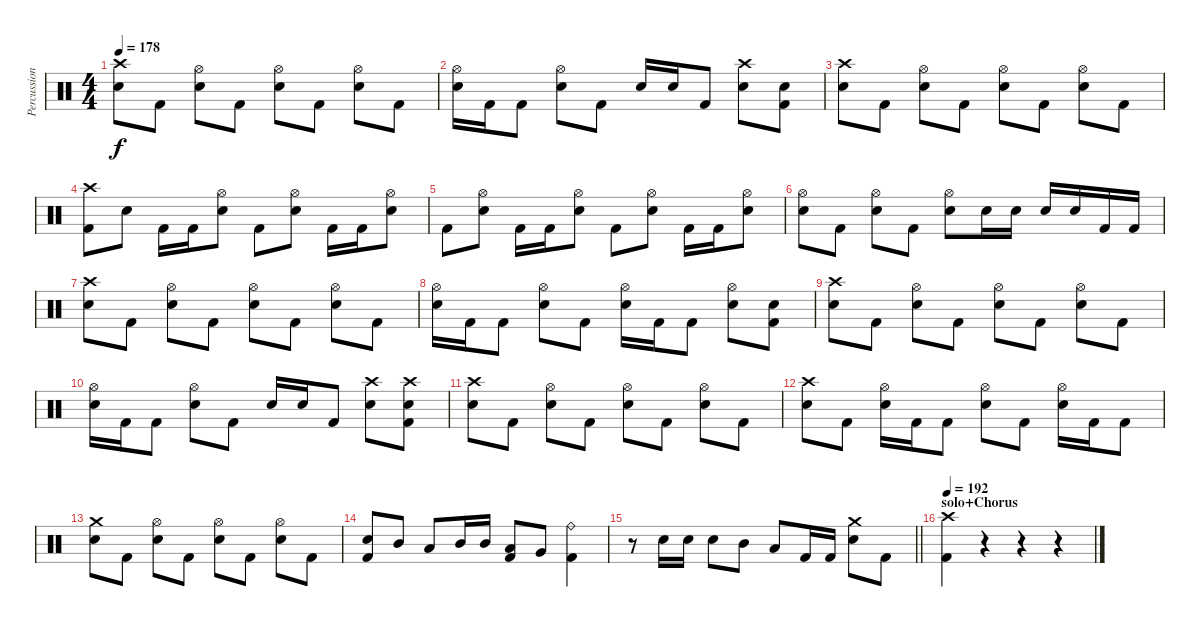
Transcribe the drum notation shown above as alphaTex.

\track ("Percussion" "Percussion") {instrument percussion}
\staff {score}
\articulation defaults
\ts (4 4)
\tempo 178
\clef neutral
\ks c
("Crash high (hit)" "Electric Snare (hit)").8{dy f} "Kick (hit) 2".8 ("Hi-Hat (open)" "Electric Snare (hit)").8 "Kick (hit) 2".8 ("Hi-Hat (open)" "Electric Snare (hit)").8 "Kick (hit) 2".8 ("Hi-Hat (open)" "Electric Snare (hit)").8 "Kick (hit) 2".8 |
("Hi-Hat (open)" "Electric Snare (hit)").16 "Kick (hit) 2".16 "Kick (hit) 2".8 ("Hi-Hat (open)" "Electric Snare (hit)").8 "Kick (hit) 2".8 "Electric Snare (hit)".16 "Electric Snare (hit)".16 "Kick (hit) 2".8 ("Crash high (hit)" "Electric Snare (hit)").8 ("Electric Snare (hit)" "Kick (hit) 2").8 |
("Crash high (hit)" "Electric Snare (hit)").8 "Kick (hit) 2".8 ("Hi-Hat (open)" "Electric Snare (hit)").8 "Kick (hit) 2".8 ("Hi-Hat (open)" "Electric Snare (hit)").8 "Kick (hit) 2".8 ("Hi-Hat (open)" "Electric Snare (hit)").8 "Kick (hit) 2".8 |
("Crash high (hit)" "Kick (hit) 2").8 "Electric Snare (hit)".8 "Kick (hit) 2".16 "Kick (hit) 2".16 ("Hi-Hat (open)" "Electric Snare (hit)").8 "Kick (hit) 2".8 ("Hi-Hat (open)" "Electric Snare (hit)").8 "Kick (hit) 2".16 "Kick (hit) 2".16 ("Hi-Hat (open)" "Electric Snare (hit)").8 |
"Kick (hit) 2".8 ("Hi-Hat (open)" "Electric Snare (hit)").8 "Kick (hit) 2".16 "Kick (hit) 2".16 ("Hi-Hat (open)" "Electric Snare (hit)").8 "Kick (hit) 2".8 ("Hi-Hat (open)" "Electric Snare (hit)").8 "Kick (hit) 2".16 "Kick (hit) 2".16 ("Hi-Hat (open)" "Electric Snare (hit)").8 |
("Hi-Hat (open)" "Electric Snare (hit)").8 "Kick (hit) 2".8 ("Hi-Hat (open)" "Electric Snare (hit)").8 "Kick (hit) 2".8 ("Hi-Hat (open)" "Electric Snare (hit)").8 "Electric Snare (hit)".16 "Electric Snare (hit)".16 "Electric Snare (hit)".16 "Electric Snare (hit)".16 "Kick (hit) 2".16 "Kick (hit) 2".16 |
("Crash high (hit)" "Electric Snare (hit)").8 "Kick (hit) 2".8 ("Hi-Hat (open)" "Electric Snare (hit)").8 "Kick (hit) 2".8 ("Hi-Hat (open)" "Electric Snare (hit)").8 "Kick (hit) 2".8 ("Hi-Hat (open)" "Electric Snare (hit)").8 "Kick (hit) 2".8 |
("Hi-Hat (open)" "Electric Snare (hit)").16 "Kick (hit) 2".16 "Kick (hit) 2".8 ("Hi-Hat (open)" "Electric Snare (hit)").8 "Kick (hit) 2".8 ("Hi-Hat (open)" "Electric Snare (hit)").16 "Kick (hit) 2".16 "Kick (hit) 2".8 ("Hi-Hat (open)" "Electric Snare (hit)").8 ("Electric Snare (hit)" "Kick (hit) 2").8 |
("Crash high (hit)" "Electric Snare (hit)").8 "Kick (hit) 2".8 ("Hi-Hat (open)" "Electric Snare (hit)").8 "Kick (hit) 2".8 ("Hi-Hat (open)" "Electric Snare (hit)").8 "Kick (hit) 2".8 ("Hi-Hat (open)" "Electric Snare (hit)").8 "Kick (hit) 2".8 |
("Hi-Hat (open)" "Electric Snare (hit)").16 "Kick (hit) 2".16 "Kick (hit) 2".8 ("Hi-Hat (open)" "Electric Snare (hit)").8 "Kick (hit) 2".8 "Electric Snare (hit)".16 "Electric Snare (hit)".16 "Kick (hit) 2".8 ("Crash high (hit)" "Electric Snare (hit)").8 ("Crash high (hit)" "Electric Snare (hit)" "Kick (hit) 2").8 |
("Crash high (hit)" "Electric Snare (hit)").8 "Kick (hit) 2".8 ("Hi-Hat (open)" "Electric Snare (hit)").8 "Kick (hit) 2".8 ("Hi-Hat (open)" "Electric Snare (hit)").8 "Kick (hit) 2".8 ("Hi-Hat (open)" "Electric Snare (hit)").8 "Kick (hit) 2".8 |
("Crash high (hit)" "Electric Snare (hit)").8 "Kick (hit) 2".8 ("Hi-Hat (open)" "Electric Snare (hit)").16 "Kick (hit) 2".16 "Kick (hit) 2".8 ("Hi-Hat (open)" "Electric Snare (hit)").8 "Kick (hit) 2".8 ("Hi-Hat (open)" "Electric Snare (hit)").16 "Kick (hit) 2".16 "Kick (hit) 2".8 |
("Crash medium (hit)" "Electric Snare (hit)").8 "Kick (hit) 2".8 ("Hi-Hat (open)" "Electric Snare (hit)").8 "Kick (hit) 2".8 ("Hi-Hat (open)" "Electric Snare (hit)").8 "Kick (hit) 2".8 ("Hi-Hat (open)" "Electric Snare (hit)").8 "Kick (hit) 2".8 |
("Electric Snare (hit)" "Kick (hit) 2").8 "Mid Tom (hit)".8 "Low Tom (hit)".8 "Mid Tom (hit)".16 "Mid Tom (hit)".16 ("Low Tom (hit)" "Kick (hit) 2").8 "Very Low Tom (hit)".8 ("Ride (bell)" "Kick (hit) 2").4 |
\barLineRight lightlight
r.8 "Electric Snare (hit)".16 "Electric Snare (hit)".16 "Electric Snare (hit)".8 "Mid Tom (hit)".8 "Low Tom (hit)".8 "Kick (hit) 2".16 "Kick (hit) 2".16 ("Crash medium (hit)" "Electric Snare (hit)").8 "Kick (hit) 2".8 |
\section ("" "solo+Chorus")
\tempo 192
("Crash high (hit)" "Kick (hit) 2").4 r.4 r.4 r.4
